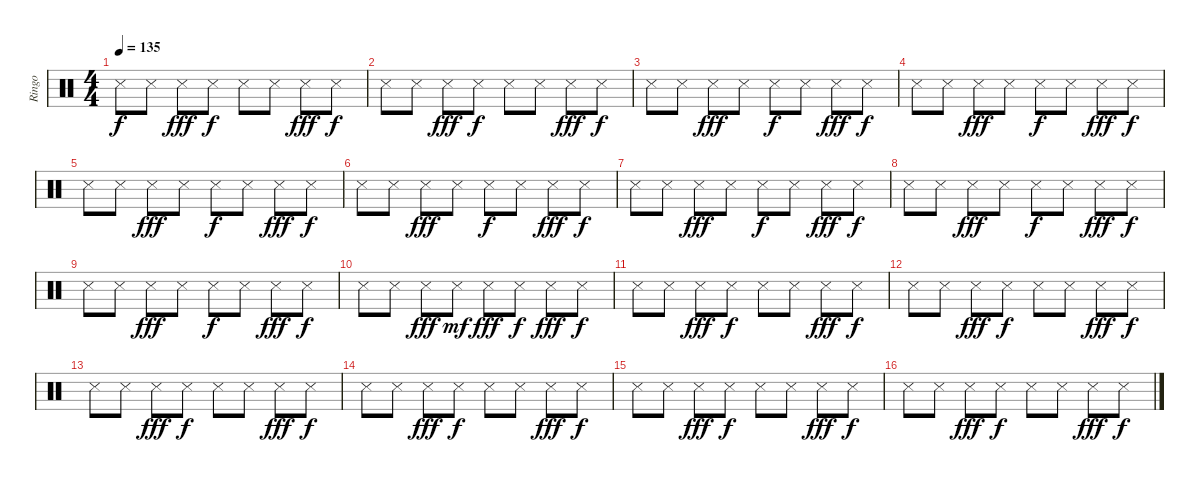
\track ("Ringo" "Ringo") {instrument percussion}
\staff {score}
\articulation defaults
\ts (4 4)
\tempo 135
\clef neutral
\ks c "Snare (side stick) 3".8{dy f} "Snare (side stick) 3".8 "Snare (side stick) 3".8{dy fff} "Snare (side stick) 3".8{dy f} "Snare (side stick) 3".8 "Snare (side stick) 3".8 "Snare (side stick) 3".8{dy fff} "Snare (side stick) 3".8{dy f}
|
"Snare (side stick) 3".8 "Snare (side stick) 3".8 "Snare (side stick) 3".8{dy fff} "Snare (side stick) 3".8{dy f} "Snare (side stick) 3".8 "Snare (side stick) 3".8 "Snare (side stick) 3".8{dy fff} "Snare (side stick) 3".8{dy f} |
"Snare (side stick) 3".8 "Snare (side stick) 3".8 "Snare (side stick) 3".8{dy fff} "Snare (side stick) 3".8 "Snare (side stick) 3".8{dy f} "Snare (side stick) 3".8 "Snare (side stick) 3".8{dy fff} "Snare (side stick) 3".8{dy f} |
"Snare (side stick) 3".8 "Snare (side stick) 3".8 "Snare (side stick) 3".8{dy fff} "Snare (side stick) 3".8 "Snare (side stick) 3".8{dy f} "Snare (side stick) 3".8 "Snare (side stick) 3".8{dy fff} "Snare (side stick) 3".8{dy f} |
"Snare (side stick) 3".8 "Snare (side stick) 3".8 "Snare (side stick) 3".8{dy fff} "Snare (side stick) 3".8 "Snare (side stick) 3".8{dy f} "Snare (side stick) 3".8 "Snare (side stick) 3".8{dy fff} "Snare (side stick) 3".8{dy f} |
"Snare (side stick) 3".8 "Snare (side stick) 3".8 "Snare (side stick) 3".8{dy fff} "Snare (side stick) 3".8 "Snare (side stick) 3".8{dy f} "Snare (side stick) 3".8 "Snare (side stick) 3".8{dy fff} "Snare (side stick) 3".8{dy f} |
"Snare (side stick) 3".8 "Snare (side stick) 3".8 "Snare (side stick) 3".8{dy fff} "Snare (side stick) 3".8 "Snare (side stick) 3".8{dy f} "Snare (side stick) 3".8 "Snare (side stick) 3".8{dy fff} "Snare (side stick) 3".8{dy f} |
"Snare (side stick) 3".8 "Snare (side stick) 3".8 "Snare (side stick) 3".8{dy fff} "Snare (side stick) 3".8 "Snare (side stick) 3".8{dy f} "Snare (side stick) 3".8 "Snare (side stick) 3".8{dy fff} "Snare (side stick) 3".8{dy f} |
"Snare (side stick) 3".8 "Snare (side stick) 3".8 "Snare (side stick) 3".8{dy fff} "Snare (side stick) 3".8 "Snare (side stick) 3".8{dy f} "Snare (side stick) 3".8 "Snare (side stick) 3".8{dy fff} "Snare (side stick) 3".8{dy f} |
"Snare (side stick) 3".8 "Snare (side stick) 3".8 "Snare (side stick) 3".8{dy fff} "Snare (side stick) 3".8{dy mf} "Snare (side stick) 3".8{dy fff} "Snare (side stick) 3".8{dy f} "Snare (side stick) 3".8{dy fff} "Snare (side stick) 3".8{dy f} |
"Snare (side stick) 3".8 "Snare (side stick) 3".8 "Snare (side stick) 3".8{dy fff} "Snare (side stick) 3".8{dy f} "Snare (side stick) 3".8 "Snare (side stick) 3".8 "Snare (side stick) 3".8{dy fff} "Snare (side stick) 3".8{dy f} |
"Snare (side stick) 3".8 "Snare (side stick) 3".8 "Snare (side stick) 3".8{dy fff} "Snare (side stick) 3".8{dy f} "Snare (side stick) 3".8 "Snare (side stick) 3".8 "Snare (side stick) 3".8{dy fff} "Snare (side stick) 3".8{dy f} |
"Snare (side stick) 3".8 "Snare (side stick) 3".8 "Snare (side stick) 3".8{dy fff} "Snare (side stick) 3".8{dy f} "Snare (side stick) 3".8 "Snare (side stick) 3".8 "Snare (side stick) 3".8{dy fff} "Snare (side stick) 3".8{dy f} |
"Snare (side stick) 3".8 "Snare (side stick) 3".8 "Snare (side stick) 3".8{dy fff} "Snare (side stick) 3".8{dy f} "Snare (side stick) 3".8 "Snare (side stick) 3".8 "Snare (side stick) 3".8{dy fff} "Snare (side stick) 3".8{dy f} |
"Snare (side stick) 3".8 "Snare (side stick) 3".8 "Snare (side stick) 3".8{dy fff} "Snare (side stick) 3".8{dy f} "Snare (side stick) 3".8 "Snare (side stick) 3".8 "Snare (side stick) 3".8{dy fff} "Snare (side stick) 3".8{dy f} |
"Snare (side stick) 3".8 "Snare (side stick) 3".8 "Snare (side stick) 3".8{dy fff} "Snare (side stick) 3".8{dy f} "Snare (side stick) 3".8 "Snare (side stick) 3".8 "Snare (side stick) 3".8{dy fff} "Snare (side stick) 3".8{dy f}
